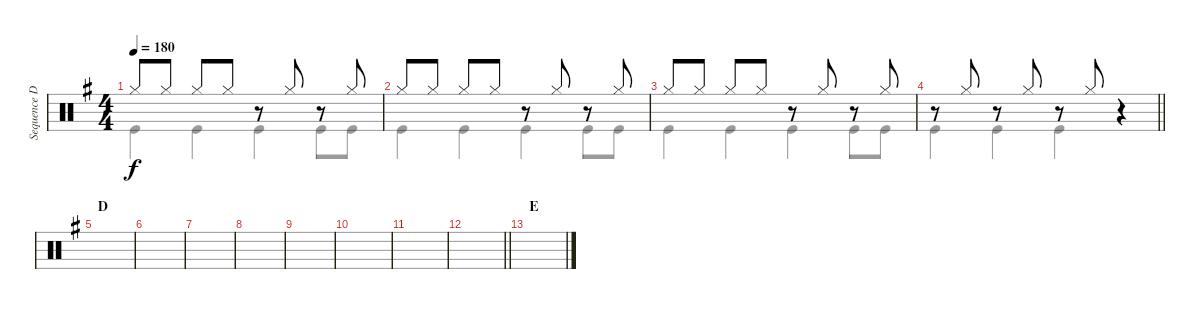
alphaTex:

\track ("Sequence Drums" "Sequence D") {instrument percussion}
\staff {score}
\articulation defaults
\voice
\ts (4 4)
\tempo 180
\clef neutral
\ks g "Hi-Hat (closed)".8{dy f} "Hi-Hat (closed)".8 "Hi-Hat (closed)".8 "Hi-Hat (closed)".8
r.8 "Hi-Hat (closed)".8 r.8 "Hi-Hat (closed)".8 |
"Hi-Hat (closed)".8 "Hi-Hat (closed)".8 "Hi-Hat (closed)".8 "Hi-Hat (closed)".8 r.8 "Hi-Hat (closed)".8 r.8 "Hi-Hat (closed)".8 |
"Hi-Hat (closed)".8 "Hi-Hat (closed)".8 "Hi-Hat (closed)".8 "Hi-Hat (closed)".8 r.8 "Hi-Hat (closed)".8 r.8 "Hi-Hat (closed)".8 |
\barLineRight lightlight
r.8 "Hi-Hat (closed)".8 r.8 "Hi-Hat (closed)".8 r.8 "Hi-Hat (closed)".8 r.4 |
\section ("" "D")
|
|
|
|
|
|
|
\barLineRight lightlight
|
\section ("" "E")
|
|
|
\voice
\clef neutral
\ottava regular
\simile none
\ks g "Kick (hit)".4{dy f} "Kick (hit)".4 "Kick (hit)".4 "Kick (hit)".8 "Kick (hit)".8
|
"Kick (hit)".4 "Kick (hit)".4 "Kick (hit)".4 "Kick (hit)".8 "Kick (hit)".8 |
"Kick (hit)".4 "Kick (hit)".4 "Kick (hit)".4 "Kick (hit)".8 "Kick (hit)".8 |
\barLineRight lightlight "Kick (hit)".4 "Kick (hit)".4 "Kick (hit)".4
r.4 |
|
|
|
|
|
|
|
\barLineRight lightlight
|
|
|
|
